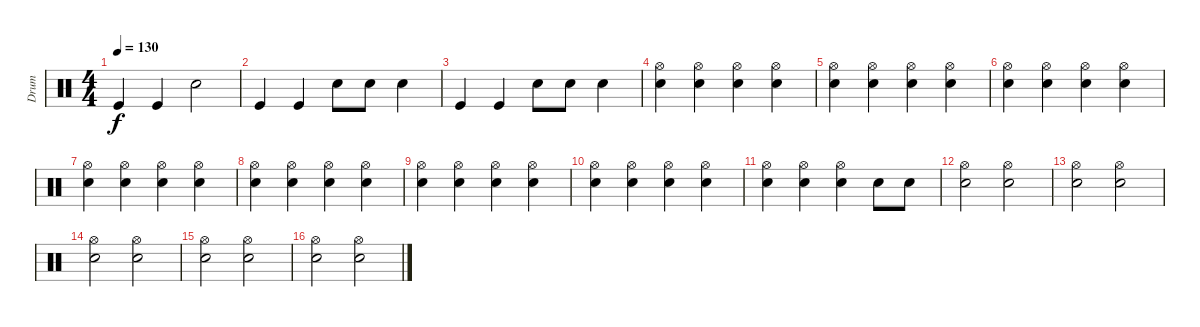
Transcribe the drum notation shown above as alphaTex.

\track ("Drum" "Drum") {instrument percussion}
\staff {score}
\articulation defaults
\ts (4 4)
\tempo 130
\clef neutral
\ks c "Kick (hit)".4{dy f} "Kick (hit)".4 "Snare (hit) 2".2
|
"Kick (hit)".4 "Kick (hit)".4 "Snare (hit) 2".8 "Snare (hit) 2".8 "Snare (hit) 2".4 |
"Kick (hit)".4 "Kick (hit)".4 "Snare (hit) 2".8 "Snare (hit) 2".8 "Snare (hit) 2".4 |
("Snare (hit) 2" "Hi-Hat (open)").4 ("Snare (hit) 2" "Hi-Hat (open)").4 ("Snare (hit) 2" "Hi-Hat (open)").4 ("Snare (hit) 2" "Hi-Hat (open)").4 |
("Snare (hit) 2" "Hi-Hat (open)").4 ("Snare (hit) 2" "Hi-Hat (open)").4 ("Snare (hit) 2" "Hi-Hat (open)").4 ("Snare (hit) 2" "Hi-Hat (open)").4 |
("Snare (hit) 2" "Hi-Hat (open)").4 ("Snare (hit) 2" "Hi-Hat (open)").4 ("Snare (hit) 2" "Hi-Hat (open)").4 ("Snare (hit) 2" "Hi-Hat (open)").4 |
("Snare (hit) 2" "Hi-Hat (open)").4 ("Snare (hit) 2" "Hi-Hat (open)").4 ("Snare (hit) 2" "Hi-Hat (open)").4 ("Snare (hit) 2" "Hi-Hat (open)").4 |
("Snare (hit) 2" "Hi-Hat (open)").4 ("Snare (hit) 2" "Hi-Hat (open)").4 ("Snare (hit) 2" "Hi-Hat (open)").4 ("Snare (hit) 2" "Hi-Hat (open)").4 |
("Snare (hit) 2" "Hi-Hat (open)").4 ("Snare (hit) 2" "Hi-Hat (open)").4 ("Snare (hit) 2" "Hi-Hat (open)").4 ("Snare (hit) 2" "Hi-Hat (open)").4 |
("Snare (hit) 2" "Hi-Hat (open)").4 ("Snare (hit) 2" "Hi-Hat (open)").4 ("Snare (hit) 2" "Hi-Hat (open)").4 ("Snare (hit) 2" "Hi-Hat (open)").4 |
("Snare (hit) 2" "Hi-Hat (open)").4 ("Snare (hit) 2" "Hi-Hat (open)").4 ("Snare (hit) 2" "Hi-Hat (open)").4 "Snare (hit) 2".8 "Snare (hit) 2".8 |
("Snare (hit) 2" "Hi-Hat (open)").2 ("Snare (hit) 2" "Hi-Hat (open)").2 |
("Snare (hit) 2" "Hi-Hat (open)").2 ("Snare (hit) 2" "Hi-Hat (open)").2 |
("Snare (hit) 2" "Hi-Hat (open)").2 ("Snare (hit) 2" "Hi-Hat (open)").2 |
("Snare (hit) 2" "Hi-Hat (open)").2 ("Snare (hit) 2" "Hi-Hat (open)").2 |
("Snare (hit) 2" "Hi-Hat (open)").2 ("Snare (hit) 2" "Hi-Hat (open)").2
